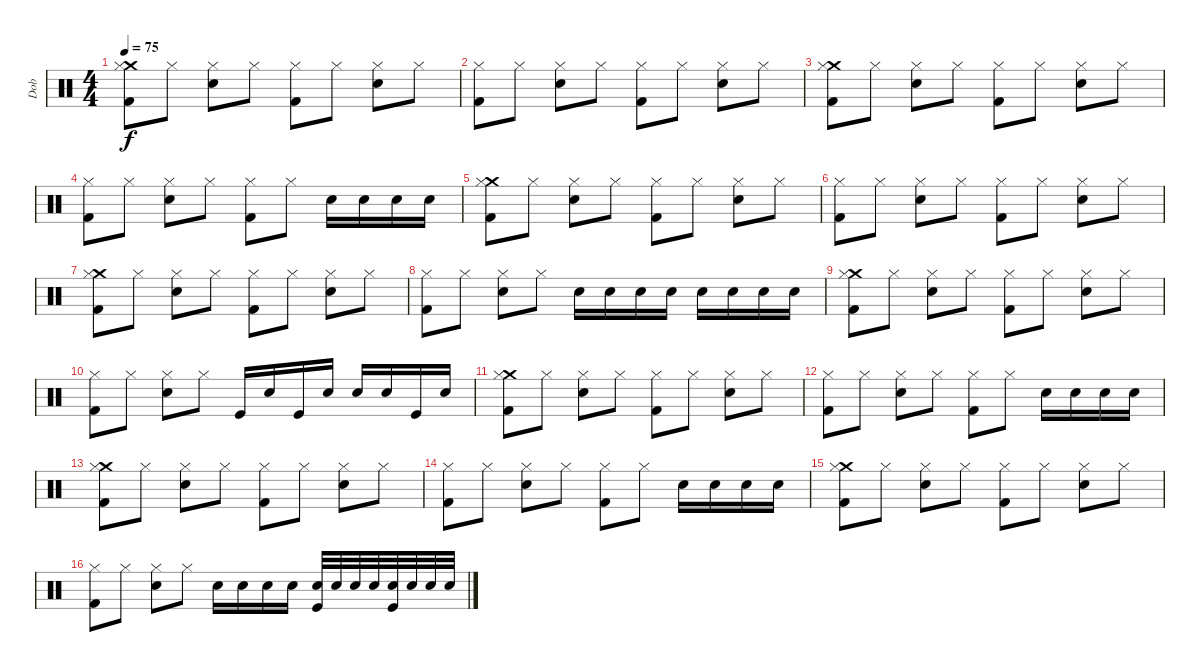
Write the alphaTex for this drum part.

\track ("Dob" "Dob") {instrument percussion}
\staff {score}
\articulation defaults
\ts (4 4)
\tempo 75
\clef neutral
\ks c
("Crash medium (hit)" "Kick (hit) 2" "Hi-Hat (closed)").8{dy f} "Hi-Hat (closed)".8 ("Snare (hit) 2" "Hi-Hat (closed)").8 "Hi-Hat (closed)".8 ("Kick (hit) 2" "Hi-Hat (closed)").8 "Hi-Hat (closed)".8 ("Snare (hit) 2" "Hi-Hat (closed)").8 "Hi-Hat (closed)".8 |
("Kick (hit) 2" "Hi-Hat (closed)").8 "Hi-Hat (closed)".8 ("Snare (hit) 2" "Hi-Hat (closed)").8 "Hi-Hat (closed)".8 ("Kick (hit) 2" "Hi-Hat (closed)").8 "Hi-Hat (closed)".8 ("Snare (hit) 2" "Hi-Hat (closed)").8 "Hi-Hat (closed)".8 |
("Crash medium (hit)" "Kick (hit) 2" "Hi-Hat (closed)").8 "Hi-Hat (closed)".8 ("Snare (hit) 2" "Hi-Hat (closed)").8 "Hi-Hat (closed)".8 ("Kick (hit) 2" "Hi-Hat (closed)").8 "Hi-Hat (closed)".8 ("Snare (hit) 2" "Hi-Hat (closed)").8 "Hi-Hat (closed)".8 |
("Kick (hit) 2" "Hi-Hat (closed)").8 "Hi-Hat (closed)".8 ("Snare (hit) 2" "Hi-Hat (closed)").8 "Hi-Hat (closed)".8 ("Kick (hit) 2" "Hi-Hat (closed)").8 "Hi-Hat (closed)".8 "Snare (hit) 2".16 "Snare (hit) 2".16 "Snare (hit) 2".16 "Snare (hit) 2".16 |
("Crash medium (hit)" "Kick (hit) 2" "Hi-Hat (closed)").8 "Hi-Hat (closed)".8 ("Snare (hit) 2" "Hi-Hat (closed)").8 "Hi-Hat (closed)".8 ("Kick (hit) 2" "Hi-Hat (closed)").8 "Hi-Hat (closed)".8 ("Snare (hit) 2" "Hi-Hat (closed)").8 "Hi-Hat (closed)".8 |
("Kick (hit) 2" "Hi-Hat (closed)").8 "Hi-Hat (closed)".8 ("Snare (hit) 2" "Hi-Hat (closed)").8 "Hi-Hat (closed)".8 ("Kick (hit) 2" "Hi-Hat (closed)").8 "Hi-Hat (closed)".8 ("Snare (hit) 2" "Hi-Hat (closed)").8 "Hi-Hat (closed)".8 |
("Crash medium (hit)" "Kick (hit) 2" "Hi-Hat (closed)").8 "Hi-Hat (closed)".8 ("Snare (hit) 2" "Hi-Hat (closed)").8 "Hi-Hat (closed)".8 ("Kick (hit) 2" "Hi-Hat (closed)").8 "Hi-Hat (closed)".8 ("Snare (hit) 2" "Hi-Hat (closed)").8 "Hi-Hat (closed)".8 |
("Kick (hit) 2" "Hi-Hat (closed)").8 "Hi-Hat (closed)".8 ("Snare (hit) 2" "Hi-Hat (closed)").8 "Hi-Hat (closed)".8 "Snare (hit) 2".16 "Snare (hit) 2".16 "Snare (hit) 2".16 "Snare (hit) 2".16 "Snare (hit) 2".16 "Snare (hit) 2".16 "Snare (hit) 2".16 "Snare (hit) 2".16 |
("Crash medium (hit)" "Kick (hit) 2" "Hi-Hat (closed)").8 "Hi-Hat (closed)".8 ("Snare (hit) 2" "Hi-Hat (closed)").8 "Hi-Hat (closed)".8 ("Kick (hit) 2" "Hi-Hat (closed)").8 "Hi-Hat (closed)".8 ("Snare (hit) 2" "Hi-Hat (closed)").8 "Hi-Hat (closed)".8 |
("Kick (hit) 2" "Hi-Hat (closed)").8 "Hi-Hat (closed)".8 ("Snare (hit) 2" "Hi-Hat (closed)").8 "Hi-Hat (closed)".8 "Kick (hit)".16 "Snare (hit) 2".16 "Kick (hit)".16 "Snare (hit) 2".16 "Snare (hit) 2".16 "Snare (hit) 2".16 "Kick (hit)".16 "Snare (hit) 2".16 |
("Crash medium (hit)" "Kick (hit) 2" "Hi-Hat (closed)").8 "Hi-Hat (closed)".8 ("Snare (hit) 2" "Hi-Hat (closed)").8 "Hi-Hat (closed)".8 ("Kick (hit) 2" "Hi-Hat (closed)").8 "Hi-Hat (closed)".8 ("Snare (hit) 2" "Hi-Hat (closed)").8 "Hi-Hat (closed)".8 |
("Kick (hit) 2" "Hi-Hat (closed)").8 "Hi-Hat (closed)".8 ("Snare (hit) 2" "Hi-Hat (closed)").8 "Hi-Hat (closed)".8 ("Kick (hit) 2" "Hi-Hat (closed)").8 "Hi-Hat (closed)".8 "Snare (hit) 2".16 "Snare (hit) 2".16 "Snare (hit) 2".16 "Snare (hit) 2".16 |
("Crash medium (hit)" "Kick (hit) 2" "Hi-Hat (closed)").8 "Hi-Hat (closed)".8 ("Snare (hit) 2" "Hi-Hat (closed)").8 "Hi-Hat (closed)".8 ("Kick (hit) 2" "Hi-Hat (closed)").8 "Hi-Hat (closed)".8 ("Snare (hit) 2" "Hi-Hat (closed)").8 "Hi-Hat (closed)".8 |
("Kick (hit) 2" "Hi-Hat (closed)").8 "Hi-Hat (closed)".8 ("Snare (hit) 2" "Hi-Hat (closed)").8 "Hi-Hat (closed)".8 ("Kick (hit) 2" "Hi-Hat (closed)").8 "Hi-Hat (closed)".8 "Snare (hit) 2".16 "Snare (hit) 2".16 "Snare (hit) 2".16 "Snare (hit) 2".16 |
("Crash medium (hit)" "Kick (hit) 2" "Hi-Hat (closed)").8 "Hi-Hat (closed)".8 ("Snare (hit) 2" "Hi-Hat (closed)").8 "Hi-Hat (closed)".8 ("Kick (hit) 2" "Hi-Hat (closed)").8 "Hi-Hat (closed)".8 ("Snare (hit) 2" "Hi-Hat (closed)").8 "Hi-Hat (closed)".8 |
("Kick (hit) 2" "Hi-Hat (closed)").8 "Hi-Hat (closed)".8 ("Snare (hit) 2" "Hi-Hat (closed)").8 "Hi-Hat (closed)".8 "Snare (hit) 2".16 "Snare (hit) 2".16 "Snare (hit) 2".16 "Snare (hit) 2".16 ("Snare (hit) 2" "Kick (hit)").32 "Snare (hit) 2".32 "Snare (hit) 2".32 "Snare (hit) 2".32 ("Snare (hit) 2" "Kick (hit)").32 "Snare (hit) 2".32 "Snare (hit) 2".32 "Snare (hit) 2".32
